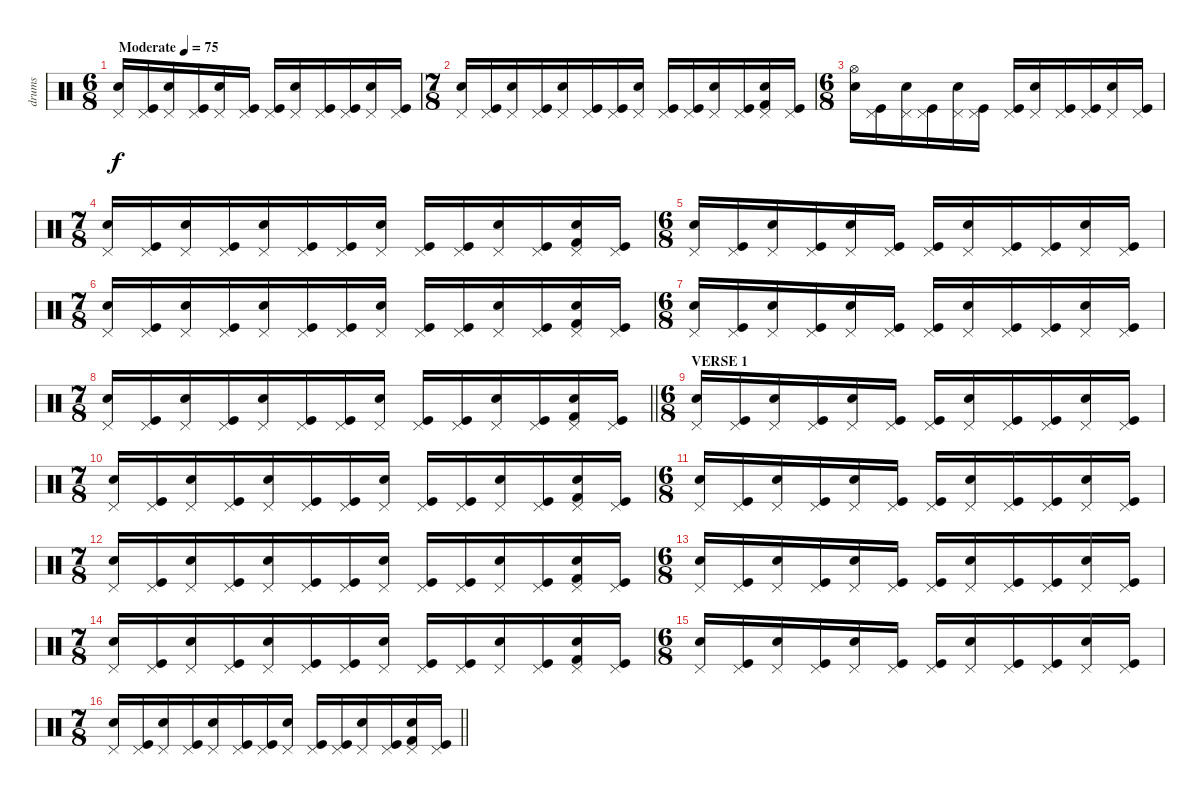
\track ("drums" "drums") {instrument percussion}
\staff {score}
\articulation defaults
\ts (6 8)
\tempo (75 "Moderate")
\clef neutral
\ks c
("Pedal Hi-Hat (hit)" "Electric Snare (hit)").16{dy f} ("Pedal Hi-Hat (hit)" "Kick (hit)").16 ("Pedal Hi-Hat (hit)" "Electric Snare (hit)").16 ("Pedal Hi-Hat (hit)" "Kick (hit)").16 ("Pedal Hi-Hat (hit)" "Electric Snare (hit)").16 ("Pedal Hi-Hat (hit)" "Kick (hit)").16 ("Pedal Hi-Hat (hit)" "Kick (hit)").16 ("Pedal Hi-Hat (hit)" "Electric Snare (hit)").16 ("Pedal Hi-Hat (hit)" "Kick (hit)").16 ("Pedal Hi-Hat (hit)" "Kick (hit)").16 ("Pedal Hi-Hat (hit)" "Electric Snare (hit)").16 ("Pedal Hi-Hat (hit)" "Kick (hit)").16 |
\ts (7 8)
("Pedal Hi-Hat (hit)" "Electric Snare (hit)").16 ("Pedal Hi-Hat (hit)" "Kick (hit)").16 ("Pedal Hi-Hat (hit)" "Electric Snare (hit)").16 ("Pedal Hi-Hat (hit)" "Kick (hit)").16 ("Pedal Hi-Hat (hit)" "Electric Snare (hit)").16 ("Pedal Hi-Hat (hit)" "Kick (hit)").16 ("Pedal Hi-Hat (hit)" "Kick (hit)").16 ("Pedal Hi-Hat (hit)" "Electric Snare (hit)").16 ("Pedal Hi-Hat (hit)" "Kick (hit)").16 ("Pedal Hi-Hat (hit)" "Kick (hit)").16 ("Pedal Hi-Hat (hit)" "Electric Snare (hit)").16 ("Pedal Hi-Hat (hit)" "Kick (hit)").16 ("Pedal Hi-Hat (hit)" "Electric Snare (hit)" "Kick (hit) 2").16 ("Pedal Hi-Hat (hit)" "Kick (hit)").16 |
\ts (6 8)
("Hi-Hat (open)" "Electric Snare (hit)").16 ("Pedal Hi-Hat (hit)" "Kick (hit)").16 ("Pedal Hi-Hat (hit)" "Electric Snare (hit)").16 ("Pedal Hi-Hat (hit)" "Kick (hit)").16 ("Pedal Hi-Hat (hit)" "Electric Snare (hit)").16 ("Pedal Hi-Hat (hit)" "Kick (hit)").16 ("Pedal Hi-Hat (hit)" "Kick (hit)").16 ("Pedal Hi-Hat (hit)" "Electric Snare (hit)").16 ("Pedal Hi-Hat (hit)" "Kick (hit)").16 ("Pedal Hi-Hat (hit)" "Kick (hit)").16 ("Pedal Hi-Hat (hit)" "Electric Snare (hit)").16 ("Pedal Hi-Hat (hit)" "Kick (hit)").16 |
\ts (7 8)
("Pedal Hi-Hat (hit)" "Electric Snare (hit)").16 ("Pedal Hi-Hat (hit)" "Kick (hit)").16 ("Pedal Hi-Hat (hit)" "Electric Snare (hit)").16 ("Pedal Hi-Hat (hit)" "Kick (hit)").16 ("Pedal Hi-Hat (hit)" "Electric Snare (hit)").16 ("Pedal Hi-Hat (hit)" "Kick (hit)").16 ("Pedal Hi-Hat (hit)" "Kick (hit)").16 ("Pedal Hi-Hat (hit)" "Electric Snare (hit)").16 ("Pedal Hi-Hat (hit)" "Kick (hit)").16 ("Pedal Hi-Hat (hit)" "Kick (hit)").16 ("Pedal Hi-Hat (hit)" "Electric Snare (hit)").16 ("Pedal Hi-Hat (hit)" "Kick (hit)").16 ("Pedal Hi-Hat (hit)" "Electric Snare (hit)" "Kick (hit) 2").16 ("Pedal Hi-Hat (hit)" "Kick (hit)").16 |
\ts (6 8)
("Pedal Hi-Hat (hit)" "Electric Snare (hit)").16 ("Pedal Hi-Hat (hit)" "Kick (hit)").16 ("Pedal Hi-Hat (hit)" "Electric Snare (hit)").16 ("Pedal Hi-Hat (hit)" "Kick (hit)").16 ("Pedal Hi-Hat (hit)" "Electric Snare (hit)").16 ("Pedal Hi-Hat (hit)" "Kick (hit)").16 ("Pedal Hi-Hat (hit)" "Kick (hit)").16 ("Pedal Hi-Hat (hit)" "Electric Snare (hit)").16 ("Pedal Hi-Hat (hit)" "Kick (hit)").16 ("Pedal Hi-Hat (hit)" "Kick (hit)").16 ("Pedal Hi-Hat (hit)" "Electric Snare (hit)").16 ("Pedal Hi-Hat (hit)" "Kick (hit)").16 |
\ts (7 8)
("Pedal Hi-Hat (hit)" "Electric Snare (hit)").16 ("Pedal Hi-Hat (hit)" "Kick (hit)").16 ("Pedal Hi-Hat (hit)" "Electric Snare (hit)").16 ("Pedal Hi-Hat (hit)" "Kick (hit)").16 ("Pedal Hi-Hat (hit)" "Electric Snare (hit)").16 ("Pedal Hi-Hat (hit)" "Kick (hit)").16 ("Pedal Hi-Hat (hit)" "Kick (hit)").16 ("Pedal Hi-Hat (hit)" "Electric Snare (hit)").16 ("Pedal Hi-Hat (hit)" "Kick (hit)").16 ("Pedal Hi-Hat (hit)" "Kick (hit)").16 ("Pedal Hi-Hat (hit)" "Electric Snare (hit)").16 ("Pedal Hi-Hat (hit)" "Kick (hit)").16 ("Pedal Hi-Hat (hit)" "Electric Snare (hit)" "Kick (hit) 2").16 ("Pedal Hi-Hat (hit)" "Kick (hit)").16 |
\ts (6 8)
("Pedal Hi-Hat (hit)" "Electric Snare (hit)").16 ("Pedal Hi-Hat (hit)" "Kick (hit)").16 ("Pedal Hi-Hat (hit)" "Electric Snare (hit)").16 ("Pedal Hi-Hat (hit)" "Kick (hit)").16 ("Pedal Hi-Hat (hit)" "Electric Snare (hit)").16 ("Pedal Hi-Hat (hit)" "Kick (hit)").16 ("Pedal Hi-Hat (hit)" "Kick (hit)").16 ("Pedal Hi-Hat (hit)" "Electric Snare (hit)").16 ("Pedal Hi-Hat (hit)" "Kick (hit)").16 ("Pedal Hi-Hat (hit)" "Kick (hit)").16 ("Pedal Hi-Hat (hit)" "Electric Snare (hit)").16 ("Pedal Hi-Hat (hit)" "Kick (hit)").16 |
\ts (7 8)
\barLineRight lightlight
("Pedal Hi-Hat (hit)" "Electric Snare (hit)").16 ("Pedal Hi-Hat (hit)" "Kick (hit)").16 ("Pedal Hi-Hat (hit)" "Electric Snare (hit)").16 ("Pedal Hi-Hat (hit)" "Kick (hit)").16 ("Pedal Hi-Hat (hit)" "Electric Snare (hit)").16 ("Pedal Hi-Hat (hit)" "Kick (hit)").16 ("Pedal Hi-Hat (hit)" "Kick (hit)").16 ("Pedal Hi-Hat (hit)" "Electric Snare (hit)").16 ("Pedal Hi-Hat (hit)" "Kick (hit)").16 ("Pedal Hi-Hat (hit)" "Kick (hit)").16 ("Pedal Hi-Hat (hit)" "Electric Snare (hit)").16 ("Pedal Hi-Hat (hit)" "Kick (hit)").16 ("Pedal Hi-Hat (hit)" "Electric Snare (hit)" "Kick (hit) 2").16 ("Pedal Hi-Hat (hit)" "Kick (hit)").16 |
\ts (6 8)
\section ("" "VERSE 1")
("Pedal Hi-Hat (hit)" "Electric Snare (hit)").16 ("Pedal Hi-Hat (hit)" "Kick (hit)").16 ("Pedal Hi-Hat (hit)" "Electric Snare (hit)").16 ("Pedal Hi-Hat (hit)" "Kick (hit)").16 ("Pedal Hi-Hat (hit)" "Electric Snare (hit)").16 ("Pedal Hi-Hat (hit)" "Kick (hit)").16 ("Pedal Hi-Hat (hit)" "Kick (hit)").16 ("Pedal Hi-Hat (hit)" "Electric Snare (hit)").16 ("Pedal Hi-Hat (hit)" "Kick (hit)").16 ("Pedal Hi-Hat (hit)" "Kick (hit)").16 ("Pedal Hi-Hat (hit)" "Electric Snare (hit)").16 ("Pedal Hi-Hat (hit)" "Kick (hit)").16 |
\ts (7 8)
("Pedal Hi-Hat (hit)" "Electric Snare (hit)").16 ("Pedal Hi-Hat (hit)" "Kick (hit)").16 ("Pedal Hi-Hat (hit)" "Electric Snare (hit)").16 ("Pedal Hi-Hat (hit)" "Kick (hit)").16 ("Pedal Hi-Hat (hit)" "Electric Snare (hit)").16 ("Pedal Hi-Hat (hit)" "Kick (hit)").16 ("Pedal Hi-Hat (hit)" "Kick (hit)").16 ("Pedal Hi-Hat (hit)" "Electric Snare (hit)").16 ("Pedal Hi-Hat (hit)" "Kick (hit)").16 ("Pedal Hi-Hat (hit)" "Kick (hit)").16 ("Pedal Hi-Hat (hit)" "Electric Snare (hit)").16 ("Pedal Hi-Hat (hit)" "Kick (hit)").16 ("Pedal Hi-Hat (hit)" "Electric Snare (hit)" "Kick (hit) 2").16 ("Pedal Hi-Hat (hit)" "Kick (hit)").16 |
\ts (6 8)
("Pedal Hi-Hat (hit)" "Electric Snare (hit)").16 ("Pedal Hi-Hat (hit)" "Kick (hit)").16 ("Pedal Hi-Hat (hit)" "Electric Snare (hit)").16 ("Pedal Hi-Hat (hit)" "Kick (hit)").16 ("Pedal Hi-Hat (hit)" "Electric Snare (hit)").16 ("Pedal Hi-Hat (hit)" "Kick (hit)").16 ("Pedal Hi-Hat (hit)" "Kick (hit)").16 ("Pedal Hi-Hat (hit)" "Electric Snare (hit)").16 ("Pedal Hi-Hat (hit)" "Kick (hit)").16 ("Pedal Hi-Hat (hit)" "Kick (hit)").16 ("Pedal Hi-Hat (hit)" "Electric Snare (hit)").16 ("Pedal Hi-Hat (hit)" "Kick (hit)").16 |
\ts (7 8)
("Pedal Hi-Hat (hit)" "Electric Snare (hit)").16 ("Pedal Hi-Hat (hit)" "Kick (hit)").16 ("Pedal Hi-Hat (hit)" "Electric Snare (hit)").16 ("Pedal Hi-Hat (hit)" "Kick (hit)").16 ("Pedal Hi-Hat (hit)" "Electric Snare (hit)").16 ("Pedal Hi-Hat (hit)" "Kick (hit)").16 ("Pedal Hi-Hat (hit)" "Kick (hit)").16 ("Pedal Hi-Hat (hit)" "Electric Snare (hit)").16 ("Pedal Hi-Hat (hit)" "Kick (hit)").16 ("Pedal Hi-Hat (hit)" "Kick (hit)").16 ("Pedal Hi-Hat (hit)" "Electric Snare (hit)").16 ("Pedal Hi-Hat (hit)" "Kick (hit)").16 ("Pedal Hi-Hat (hit)" "Electric Snare (hit)" "Kick (hit) 2").16 ("Pedal Hi-Hat (hit)" "Kick (hit)").16 |
\ts (6 8)
("Pedal Hi-Hat (hit)" "Electric Snare (hit)").16 ("Pedal Hi-Hat (hit)" "Kick (hit)").16 ("Pedal Hi-Hat (hit)" "Electric Snare (hit)").16 ("Pedal Hi-Hat (hit)" "Kick (hit)").16 ("Pedal Hi-Hat (hit)" "Electric Snare (hit)").16 ("Pedal Hi-Hat (hit)" "Kick (hit)").16 ("Pedal Hi-Hat (hit)" "Kick (hit)").16 ("Pedal Hi-Hat (hit)" "Electric Snare (hit)").16 ("Pedal Hi-Hat (hit)" "Kick (hit)").16 ("Pedal Hi-Hat (hit)" "Kick (hit)").16 ("Pedal Hi-Hat (hit)" "Electric Snare (hit)").16 ("Pedal Hi-Hat (hit)" "Kick (hit)").16 |
\ts (7 8)
("Pedal Hi-Hat (hit)" "Electric Snare (hit)").16 ("Pedal Hi-Hat (hit)" "Kick (hit)").16 ("Pedal Hi-Hat (hit)" "Electric Snare (hit)").16 ("Pedal Hi-Hat (hit)" "Kick (hit)").16 ("Pedal Hi-Hat (hit)" "Electric Snare (hit)").16 ("Pedal Hi-Hat (hit)" "Kick (hit)").16 ("Pedal Hi-Hat (hit)" "Kick (hit)").16 ("Pedal Hi-Hat (hit)" "Electric Snare (hit)").16 ("Pedal Hi-Hat (hit)" "Kick (hit)").16 ("Pedal Hi-Hat (hit)" "Kick (hit)").16 ("Pedal Hi-Hat (hit)" "Electric Snare (hit)").16 ("Pedal Hi-Hat (hit)" "Kick (hit)").16 ("Pedal Hi-Hat (hit)" "Electric Snare (hit)" "Kick (hit) 2").16 ("Pedal Hi-Hat (hit)" "Kick (hit)").16 |
\ts (6 8)
("Pedal Hi-Hat (hit)" "Electric Snare (hit)").16 ("Pedal Hi-Hat (hit)" "Kick (hit)").16 ("Pedal Hi-Hat (hit)" "Electric Snare (hit)").16 ("Pedal Hi-Hat (hit)" "Kick (hit)").16 ("Pedal Hi-Hat (hit)" "Electric Snare (hit)").16 ("Pedal Hi-Hat (hit)" "Kick (hit)").16 ("Pedal Hi-Hat (hit)" "Kick (hit)").16 ("Pedal Hi-Hat (hit)" "Electric Snare (hit)").16 ("Pedal Hi-Hat (hit)" "Kick (hit)").16 ("Pedal Hi-Hat (hit)" "Kick (hit)").16 ("Pedal Hi-Hat (hit)" "Electric Snare (hit)").16 ("Pedal Hi-Hat (hit)" "Kick (hit)").16 |
\ts (7 8)
\barLineRight lightlight
("Pedal Hi-Hat (hit)" "Electric Snare (hit)").16 ("Pedal Hi-Hat (hit)" "Kick (hit)").16 ("Pedal Hi-Hat (hit)" "Electric Snare (hit)").16 ("Pedal Hi-Hat (hit)" "Kick (hit)").16 ("Pedal Hi-Hat (hit)" "Electric Snare (hit)").16 ("Pedal Hi-Hat (hit)" "Kick (hit)").16 ("Pedal Hi-Hat (hit)" "Kick (hit)").16 ("Pedal Hi-Hat (hit)" "Electric Snare (hit)").16 ("Pedal Hi-Hat (hit)" "Kick (hit)").16 ("Pedal Hi-Hat (hit)" "Kick (hit)").16 ("Pedal Hi-Hat (hit)" "Electric Snare (hit)").16 ("Pedal Hi-Hat (hit)" "Kick (hit)").16 ("Pedal Hi-Hat (hit)" "Electric Snare (hit)" "Kick (hit) 2").16 ("Pedal Hi-Hat (hit)" "Kick (hit)").16
